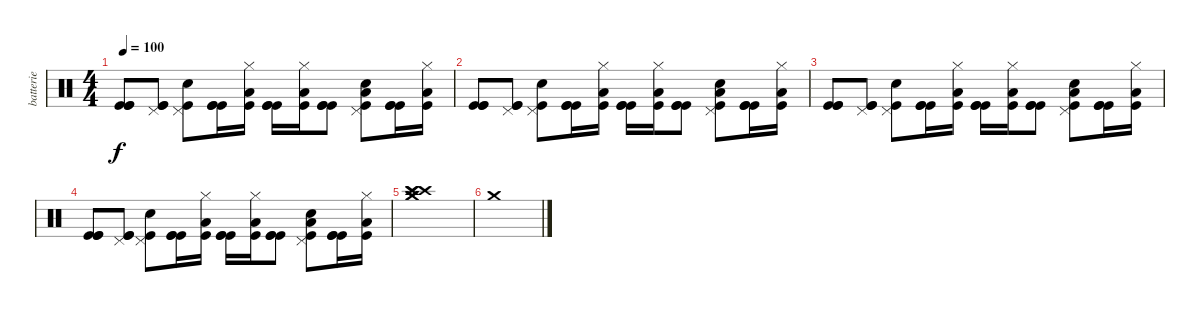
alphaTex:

\track ("batterie" "batterie") {instrument percussion}
\staff {score}
\articulation defaults
\ts (4 4)
\tempo 100
\clef neutral
\ks c
("Kick (hit)" "Kick (hit)" "Kick (hit)").8{dy f} ("Kick (hit)" "Pedal Hi-Hat (hit)" "Kick (hit)").8 ("Electric Snare (hit)" "Pedal Hi-Hat (hit)" "Kick (hit)").8 ("Kick (hit)" "Kick (hit)" "Kick (hit)").16 ("Low Floor Tom (hit)" "Hi-Hat (closed)" "Kick (hit)").16 ("Kick (hit)" "Kick (hit)" "Kick (hit)").16 ("Low Floor Tom (hit)" "Hi-Hat (closed)" "Kick (hit)").16 ("Kick (hit)" "Kick (hit)" "Kick (hit)").8 ("Electric Snare (hit)" "Low Floor Tom (hit)" "Pedal Hi-Hat (hit)" "Kick (hit)").8 ("Kick (hit)" "Kick (hit)" "Kick (hit)").16 ("Low Floor Tom (hit)" "Hi-Hat (closed)" "Kick (hit)").16 |
("Kick (hit)" "Kick (hit)" "Kick (hit)").8 ("Kick (hit)" "Pedal Hi-Hat (hit)" "Kick (hit)").8 ("Electric Snare (hit)" "Pedal Hi-Hat (hit)" "Kick (hit)").8 ("Kick (hit)" "Kick (hit)" "Kick (hit)").16 ("Low Floor Tom (hit)" "Hi-Hat (closed)" "Kick (hit)").16 ("Kick (hit)" "Kick (hit)" "Kick (hit)").16 ("Low Floor Tom (hit)" "Hi-Hat (closed)" "Kick (hit)").16 ("Kick (hit)" "Kick (hit)" "Kick (hit)").8 ("Electric Snare (hit)" "Low Floor Tom (hit)" "Pedal Hi-Hat (hit)" "Kick (hit)").8 ("Kick (hit)" "Kick (hit)" "Kick (hit)").16 ("Low Floor Tom (hit)" "Hi-Hat (closed)" "Kick (hit)").16 |
("Kick (hit)" "Kick (hit)" "Kick (hit)").8 ("Kick (hit)" "Pedal Hi-Hat (hit)" "Kick (hit)").8 ("Electric Snare (hit)" "Pedal Hi-Hat (hit)" "Kick (hit)").8 ("Kick (hit)" "Kick (hit)" "Kick (hit)").16 ("Low Floor Tom (hit)" "Hi-Hat (closed)" "Kick (hit)").16 ("Kick (hit)" "Kick (hit)" "Kick (hit)").16 ("Low Floor Tom (hit)" "Hi-Hat (closed)" "Kick (hit)").16 ("Kick (hit)" "Kick (hit)" "Kick (hit)").8 ("Electric Snare (hit)" "Low Floor Tom (hit)" "Pedal Hi-Hat (hit)" "Kick (hit)").8 ("Kick (hit)" "Kick (hit)" "Kick (hit)").16 ("Low Floor Tom (hit)" "Hi-Hat (closed)" "Kick (hit)").16 |
("Kick (hit)" "Kick (hit)" "Kick (hit)").8 ("Kick (hit)" "Pedal Hi-Hat (hit)" "Kick (hit)").8 ("Electric Snare (hit)" "Pedal Hi-Hat (hit)" "Kick (hit)").8 ("Kick (hit)" "Kick (hit)" "Kick (hit)").16 ("Low Floor Tom (hit)" "Hi-Hat (closed)" "Kick (hit)").16 ("Kick (hit)" "Kick (hit)" "Kick (hit)").16 ("Low Floor Tom (hit)" "Hi-Hat (closed)" "Kick (hit)").16 ("Kick (hit)" "Kick (hit)" "Kick (hit)").8 ("Electric Snare (hit)" "Low Floor Tom (hit)" "Pedal Hi-Hat (hit)" "Kick (hit)").8 ("Kick (hit)" "Kick (hit)" "Kick (hit)").16 ("Low Floor Tom (hit)" "Hi-Hat (closed)" "Kick (hit)").16 |
("Crash high (hit)" "Crash high (hit)" "Crash high (hit)" "Crash medium (hit)" "Crash medium (hit)").1 |
"Crash medium (hit)".1
